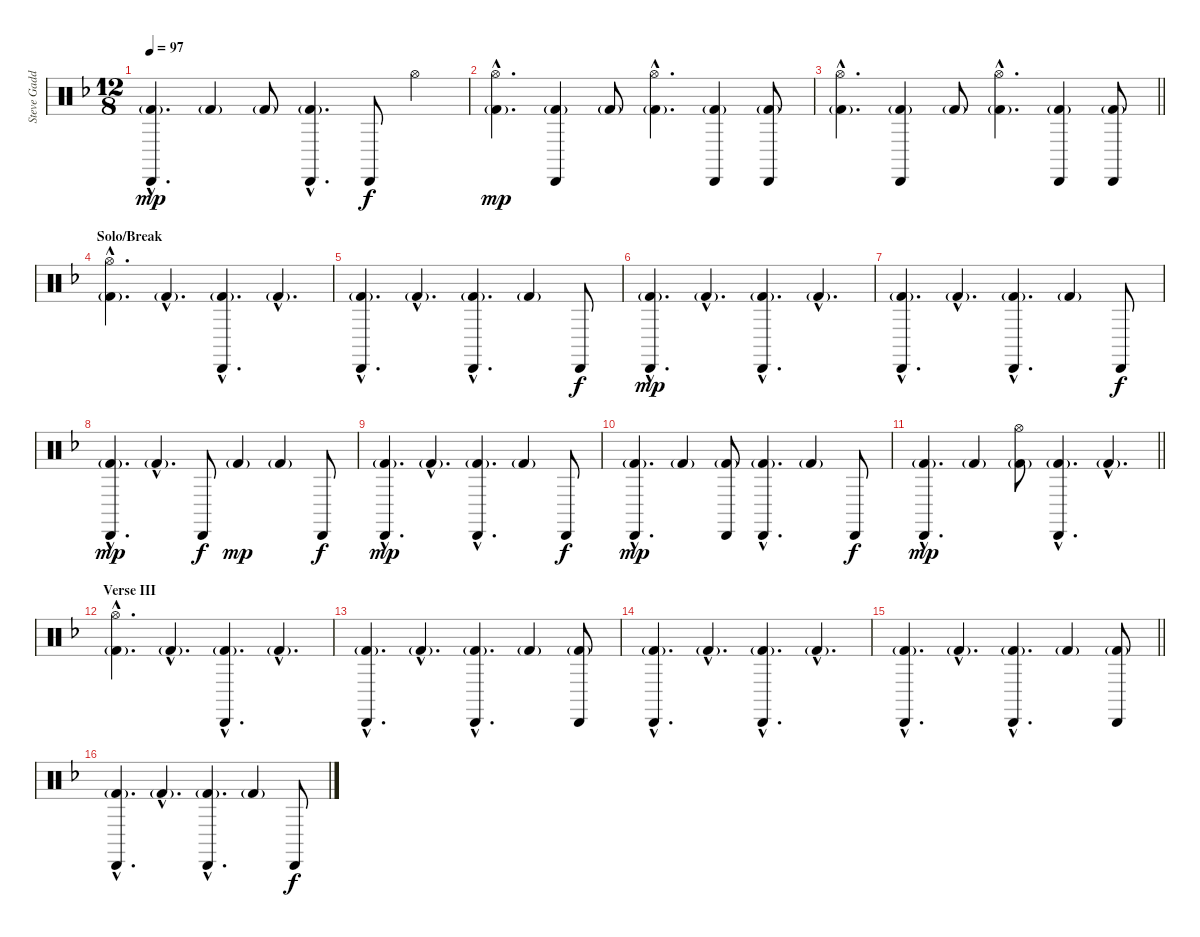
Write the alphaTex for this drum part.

\track ("Steve Gadd Drums" "Steve Gadd") {instrument percussion}
\staff {score}
\articulation defaults
\ts (12 8)
\tempo 97
\clef neutral
\ks f
("Cabasa (hit)"{hac} "Kick (hit) 2"{g hac}).4{d dy mp} "Kick (hit) 2"{g}.4 "Kick (hit) 2"{g}.8 ("Cabasa (hit)"{hac} "Kick (hit) 2"{g hac}).4{d} "Cabasa (hit)".8{dy f} "Hi-Hat (open)".4 |
("Hi-Hat (open)"{hac} "Kick (hit) 2"{g hac}).4{d dy mp} ("Cabasa (hit)" "Kick (hit) 2"{g}).4 "Kick (hit) 2"{g}.8 ("Hi-Hat (open)"{hac} "Kick (hit) 2"{g hac}).4{d} ("Cabasa (hit)" "Kick (hit) 2"{g}).4 ("Cabasa (hit)" "Kick (hit) 2"{g}).8 |
\barLineRight lightlight
("Hi-Hat (open)"{hac} "Kick (hit) 2"{g hac}).4{d} ("Cabasa (hit)" "Kick (hit) 2"{g}).4 "Kick (hit) 2"{g}.8 ("Hi-Hat (open)"{hac} "Kick (hit) 2"{g hac}).4{d} ("Cabasa (hit)" "Kick (hit) 2"{g}).4 ("Cabasa (hit)" "Kick (hit) 2"{g}).8 |
\section ("" "Solo/Break")
("Hi-Hat (open)"{hac} "Kick (hit) 2"{g hac}).4{d} "Kick (hit) 2"{g hac}.4{d} ("Cabasa (hit)"{hac} "Kick (hit) 2"{g hac}).4{d} "Kick (hit) 2"{g hac}.4{d} |
("Cabasa (hit)"{hac} "Kick (hit) 2"{g hac}).4{d} "Kick (hit) 2"{g hac}.4{d} ("Cabasa (hit)"{hac} "Kick (hit) 2"{g hac}).4{d} "Kick (hit) 2"{g}.4 "Cabasa (hit)".8{dy f} |
("Cabasa (hit)"{hac} "Kick (hit) 2"{g hac}).4{d dy mp} "Kick (hit) 2"{g hac}.4{d} ("Cabasa (hit)"{hac} "Kick (hit) 2"{g hac}).4{d} "Kick (hit) 2"{g hac}.4{d} |
("Cabasa (hit)"{hac} "Kick (hit) 2"{g hac}).4{d} "Kick (hit) 2"{g hac}.4{d} ("Cabasa (hit)"{hac} "Kick (hit) 2"{g hac}).4{d} "Kick (hit) 2"{g}.4 "Cabasa (hit)".8{dy f} |
("Cabasa (hit)"{hac} "Kick (hit) 2"{g hac}).4{d dy mp} "Kick (hit) 2"{g hac}.4{d} "Cabasa (hit)".8{dy f} "Kick (hit) 2"{g}.4{dy mp} "Kick (hit) 2"{g}.4 "Cabasa (hit)".8{dy f} |
("Cabasa (hit)"{hac} "Kick (hit) 2"{g hac}).4{d dy mp} "Kick (hit) 2"{g hac}.4{d} ("Cabasa (hit)"{hac} "Kick (hit) 2"{g hac}).4{d} "Kick (hit) 2"{g}.4 "Cabasa (hit)".8{dy f} |
("Cabasa (hit)"{hac} "Kick (hit) 2"{g hac}).4{d dy mp} "Kick (hit) 2"{g}.4 ("Cabasa (hit)" "Kick (hit) 2"{g}).8 ("Cabasa (hit)"{hac} "Kick (hit) 2"{g hac}).4{d} "Kick (hit) 2"{g}.4 "Cabasa (hit)".8{dy f} |
\barLineRight lightlight
("Cabasa (hit)"{hac} "Kick (hit) 2"{g hac}).4{d dy mp} "Kick (hit) 2"{g}.4 ("Hi-Hat (open)" "Kick (hit) 2"{g}).8 ("Cabasa (hit)"{hac} "Kick (hit) 2"{g hac}).4{d} "Kick (hit) 2"{g hac}.4{d} |
\section ("" "Verse III")
("Hi-Hat (open)"{hac} "Kick (hit) 2"{g hac}).4{d} "Kick (hit) 2"{g hac}.4{d} ("Cabasa (hit)"{hac} "Kick (hit) 2"{g hac}).4{d} "Kick (hit) 2"{g hac}.4{d} |
("Cabasa (hit)"{hac} "Kick (hit) 2"{g hac}).4{d} "Kick (hit) 2"{g hac}.4{d} ("Cabasa (hit)"{hac} "Kick (hit) 2"{g hac}).4{d} "Kick (hit) 2"{g}.4 ("Cabasa (hit)" "Kick (hit) 2"{g}).8 |
("Cabasa (hit)"{hac} "Kick (hit) 2"{g hac}).4{d} "Kick (hit) 2"{g hac}.4{d} ("Cabasa (hit)"{hac} "Kick (hit) 2"{g hac}).4{d} "Kick (hit) 2"{g hac}.4{d} |
\barLineRight lightlight
("Cabasa (hit)"{hac} "Kick (hit) 2"{g hac}).4{d} "Kick (hit) 2"{g hac}.4{d} ("Cabasa (hit)"{hac} "Kick (hit) 2"{g hac}).4{d} "Kick (hit) 2"{g}.4 ("Cabasa (hit)" "Kick (hit) 2"{g}).8 |
("Cabasa (hit)"{hac} "Kick (hit) 2"{g hac}).4{d} "Kick (hit) 2"{g hac}.4{d} ("Cabasa (hit)"{hac} "Kick (hit) 2"{g hac}).4{d} "Kick (hit) 2"{g}.4 "Cabasa (hit)".8{dy f}
